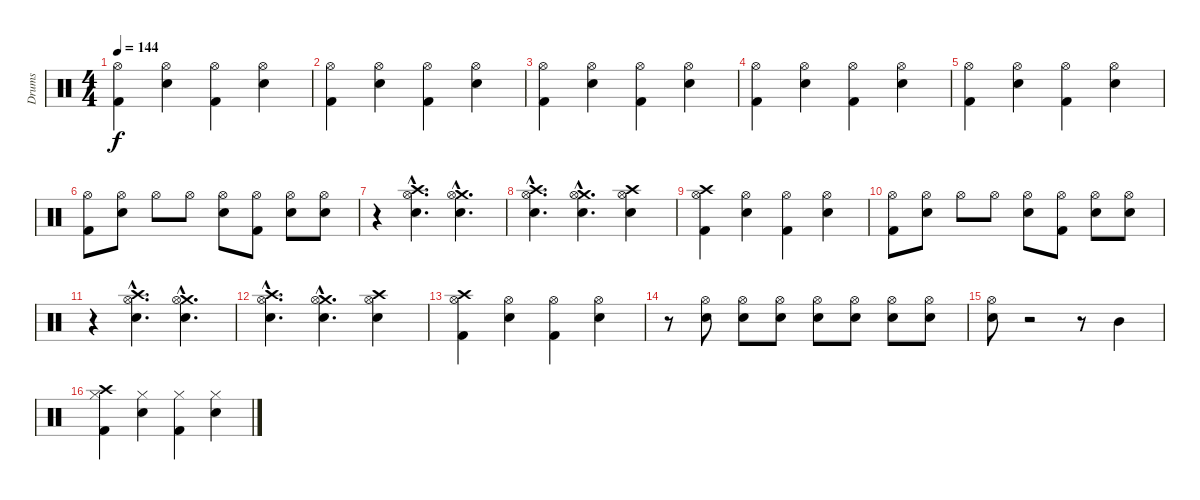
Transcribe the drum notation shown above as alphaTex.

\track ("Drums" "Drums") {instrument percussion}
\staff {score}
\articulation defaults
\ts (4 4)
\tempo 144
\clef neutral
\ks c
("Hi-Hat (open)" "Kick (hit) 2").4{dy f} ("Hi-Hat (open)" "Electric Snare (hit)").4 ("Hi-Hat (open)" "Kick (hit) 2").4 ("Hi-Hat (open)" "Electric Snare (hit)").4 |
("Hi-Hat (open)" "Kick (hit) 2").4 ("Hi-Hat (open)" "Electric Snare (hit)").4 ("Hi-Hat (open)" "Kick (hit) 2").4 ("Hi-Hat (open)" "Electric Snare (hit)").4 |
("Hi-Hat (open)" "Kick (hit) 2").4 ("Hi-Hat (open)" "Electric Snare (hit)").4 ("Hi-Hat (open)" "Kick (hit) 2").4 ("Hi-Hat (open)" "Electric Snare (hit)").4 |
("Hi-Hat (open)" "Kick (hit) 2").4 ("Hi-Hat (open)" "Electric Snare (hit)").4 ("Hi-Hat (open)" "Kick (hit) 2").4 ("Hi-Hat (open)" "Electric Snare (hit)").4 |
("Hi-Hat (open)" "Kick (hit) 2").4 ("Hi-Hat (open)" "Electric Snare (hit)").4 ("Hi-Hat (open)" "Kick (hit) 2").4 ("Hi-Hat (open)" "Electric Snare (hit)").4 |
("Hi-Hat (open)" "Kick (hit) 2").8 ("Hi-Hat (open)" "Electric Snare (hit)").8 "Hi-Hat (open)".8 "Hi-Hat (open)".8 ("Hi-Hat (open)" "Electric Snare (hit)").8 ("Hi-Hat (open)" "Kick (hit) 2").8 ("Hi-Hat (open)" "Electric Snare (hit)").8 ("Hi-Hat (open)" "Electric Snare (hit)").8 |
r.4 ("Crash high (hit)"{hac} "Hi-Hat (open)"{hac} "Electric Snare (hit)"{hac}).4{d} ("Crash medium (hit)"{hac} "Hi-Hat (open)"{hac} "Electric Snare (hit)"{hac}).4{d} |
("Crash high (hit)"{hac} "Hi-Hat (open)"{hac} "Electric Snare (hit)"{hac}).4{d} ("Crash medium (hit)"{hac} "Hi-Hat (open)"{hac} "Electric Snare (hit)"{hac}).4{d} ("Crash high (hit)" "Hi-Hat (open)" "Electric Snare (hit)").4 |
("Crash high (hit)" "Hi-Hat (open)" "Kick (hit) 2").4 ("Hi-Hat (open)" "Electric Snare (hit)").4 ("Hi-Hat (open)" "Kick (hit) 2").4 ("Hi-Hat (open)" "Electric Snare (hit)").4 |
("Hi-Hat (open)" "Kick (hit) 2").8 ("Hi-Hat (open)" "Electric Snare (hit)").8 "Hi-Hat (open)".8 "Hi-Hat (open)".8 ("Hi-Hat (open)" "Electric Snare (hit)").8 ("Hi-Hat (open)" "Kick (hit) 2").8 ("Hi-Hat (open)" "Electric Snare (hit)").8 ("Hi-Hat (open)" "Electric Snare (hit)").8 |
r.4 ("Crash high (hit)"{hac} "Hi-Hat (open)"{hac} "Electric Snare (hit)"{hac}).4{d} ("Crash medium (hit)"{hac} "Hi-Hat (open)"{hac} "Electric Snare (hit)"{hac}).4{d} |
("Crash high (hit)"{hac} "Hi-Hat (open)"{hac} "Electric Snare (hit)"{hac}).4{d} ("Crash medium (hit)"{hac} "Hi-Hat (open)"{hac} "Electric Snare (hit)"{hac}).4{d} ("Crash high (hit)" "Hi-Hat (open)" "Electric Snare (hit)").4 |
("Crash high (hit)" "Hi-Hat (open)" "Kick (hit) 2").4 ("Hi-Hat (open)" "Electric Snare (hit)").4 ("Hi-Hat (open)" "Kick (hit) 2").4 ("Hi-Hat (open)" "Electric Snare (hit)").4 |
r.8 ("Hi-Hat (open)" "Electric Snare (hit)").8 ("Hi-Hat (open)" "Electric Snare (hit)").8 ("Hi-Hat (open)" "Electric Snare (hit)").8 ("Hi-Hat (open)" "Electric Snare (hit)").8 ("Hi-Hat (open)" "Electric Snare (hit)").8 ("Hi-Hat (open)" "Electric Snare (hit)").8 ("Hi-Hat (open)" "Electric Snare (hit)").8 |
("Hi-Hat (open)" "Electric Snare (hit)").8 r.2 r.8 "Mid Tom (hit)".4 |
("Crash high (hit)" "Hi-Hat (closed)" "Kick (hit) 2").4 ("Hi-Hat (closed)" "Electric Snare (hit)").4 ("Hi-Hat (closed)" "Kick (hit) 2").4 ("Hi-Hat (closed)" "Electric Snare (hit)").4
